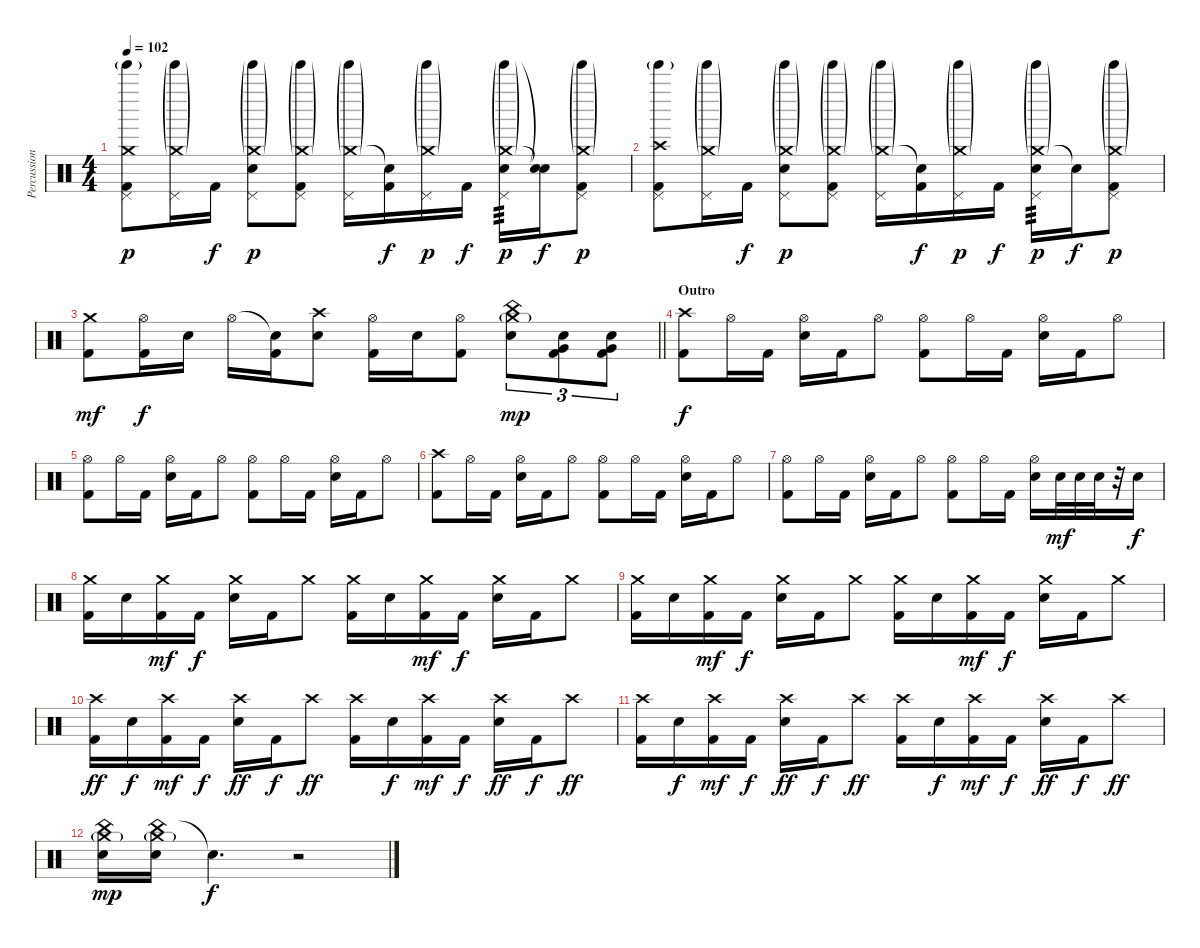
\track ("Percussions" "Percussion") {instrument percussion}
\staff {score}
\articulation defaults
\ts (4 4)
\tempo 102
\clef neutral
\ks c
("Crash medium (hit)" "Tinkle Bell (hit)"{g} "Pedal Hi-Hat (hit)" "Kick (hit) 2").8{dy p} ("Crash medium (hit)"{g} "Tinkle Bell (hit)"{g} "Pedal Hi-Hat (hit)").16 "Kick (hit) 2".16{dy f} ("Crash medium (hit)"{g} "Tinkle Bell (hit)"{g} "Pedal Hi-Hat (hit)" "Electric Snare (hit)").8{dy p} ("Crash medium (hit)"{g} "Tinkle Bell (hit)"{g} "Pedal Hi-Hat (hit)" "Kick (hit) 2").8 ("Crash medium (hit)"{g} "Tinkle Bell (hit)"{g} "Pedal Hi-Hat (hit)").16 ("Snare (hit)"{t} "Kick (hit) 2").16{dy f} ("Crash medium (hit)"{g} "Tinkle Bell (hit)"{g} "Pedal Hi-Hat (hit)").16{dy p} "Kick (hit) 2".16{dy f} ("Crash medium (hit)"{g} "Tinkle Bell (hit)"{g} "Pedal Hi-Hat (hit)" "Electric Snare (hit)").16{tp 3 dy p} ("Snare (hit)"{t} "Snare (hit)"{t}).16{dy f} ("Crash medium (hit)"{g} "Tinkle Bell (hit)"{g} "Pedal Hi-Hat (hit)" "Kick (hit) 2").8{dy p} |
("Crash high (hit)" "Tinkle Bell (hit)"{g} "Pedal Hi-Hat (hit)" "Kick (hit) 2").8 ("Crash medium (hit)"{g} "Tinkle Bell (hit)"{g} "Pedal Hi-Hat (hit)").16 "Kick (hit) 2".16{dy f} ("Crash medium (hit)"{g} "Tinkle Bell (hit)"{g} "Pedal Hi-Hat (hit)" "Electric Snare (hit)").8{dy p} ("Crash medium (hit)"{g} "Tinkle Bell (hit)"{g} "Pedal Hi-Hat (hit)" "Kick (hit) 2").8 ("Crash medium (hit)"{g} "Tinkle Bell (hit)"{g} "Pedal Hi-Hat (hit)").16 ("Snare (hit)"{t} "Kick (hit) 2").16{dy f} ("Crash medium (hit)"{g} "Tinkle Bell (hit)"{g} "Pedal Hi-Hat (hit)").16{dy p} "Kick (hit) 2".16{dy f} ("Crash medium (hit)"{g} "Tinkle Bell (hit)"{g} "Pedal Hi-Hat (hit)" "Electric Snare (hit)").16{tp 3 dy p} "Snare (hit)"{t}.16{dy f} ("Crash medium (hit)"{g} "Tinkle Bell (hit)"{g} "Pedal Hi-Hat (hit)" "Kick (hit) 2").8{dy p} |
\barLineRight lightlight
("Crash medium (hit)" "Kick (hit) 2").8{dy mf} ("Hi-Hat (open)" "Kick (hit) 2").16{dy f} "Electric Snare (hit)".16 "Hi-Hat (open)".16 ("Snare (hit)"{t} "Kick (hit) 2").16 ("Crash high (hit)" "Electric Snare (hit)").8 ("Hi-Hat (open)" "Kick (hit) 2").16 "Electric Snare (hit)".16 ("Hi-Hat (open)" "Kick (hit) 2").8 ("China (hit)" "Crash medium (hit)"{g} "Electric Snare (hit)").8{tu (3 2) dy mp} ("Very Low Tom (hit)" "Electric Snare (hit)" "Kick (hit) 2").8{tu (3 2)} ("Very Low Tom (hit)" "Electric Snare (hit)" "Kick (hit) 2").8{tu (3 2)} |
\section ("" "Outro")
("Crash high (hit)" "Kick (hit) 2").8{dy f} "Hi-Hat (open)".16 "Kick (hit) 2".16 ("Hi-Hat (open)" "Electric Snare (hit)").16 "Kick (hit) 2".16 "Hi-Hat (open)".8 ("Hi-Hat (open)" "Kick (hit) 2").8 "Hi-Hat (open)".16 "Kick (hit) 2".16 ("Hi-Hat (open)" "Electric Snare (hit)").16 "Kick (hit) 2".16 "Hi-Hat (open)".8 |
("Hi-Hat (open)" "Kick (hit) 2").8 "Hi-Hat (open)".16 "Kick (hit) 2".16 ("Hi-Hat (open)" "Electric Snare (hit)").16 "Kick (hit) 2".16 "Hi-Hat (open)".8 ("Hi-Hat (open)" "Kick (hit) 2").8 "Hi-Hat (open)".16 "Kick (hit) 2".16 ("Hi-Hat (open)" "Electric Snare (hit)").16 "Kick (hit) 2".16 "Hi-Hat (open)".8 |
("Crash high (hit)" "Kick (hit) 2").8 "Hi-Hat (open)".16 "Kick (hit) 2".16 ("Hi-Hat (open)" "Electric Snare (hit)").16 "Kick (hit) 2".16 "Hi-Hat (open)".8 ("Hi-Hat (open)" "Kick (hit) 2").8 "Hi-Hat (open)".16 "Kick (hit) 2".16 ("Hi-Hat (open)" "Electric Snare (hit)").16 "Kick (hit) 2".16 "Hi-Hat (open)".8 |
("Hi-Hat (open)" "Kick (hit) 2").8 "Hi-Hat (open)".16 "Kick (hit) 2".16 ("Hi-Hat (open)" "Electric Snare (hit)").16 "Kick (hit) 2".16 "Hi-Hat (open)".8 ("Hi-Hat (open)" "Kick (hit) 2").8 "Hi-Hat (open)".16 "Kick (hit) 2".16 ("Hi-Hat (open)" "Electric Snare (hit)").16 "Electric Snare (hit)".32{dy mf} "Electric Snare (hit)".32 "Electric Snare (hit)".32 r.32 "Electric Snare (hit)".16{dy f} |
("Crash medium (hit)" "Kick (hit) 2").16 "Electric Snare (hit)".16 ("Crash medium (hit)" "Kick (hit) 2").16{dy mf} "Kick (hit) 2".16{dy f} ("Crash medium (hit)" "Electric Snare (hit)").16 "Kick (hit) 2".16 "Crash medium (hit)".8 ("Crash medium (hit)" "Kick (hit) 2").16 "Electric Snare (hit)".16 ("Crash medium (hit)" "Kick (hit) 2").16{dy mf} "Kick (hit) 2".16{dy f} ("Crash medium (hit)" "Electric Snare (hit)").16 "Kick (hit) 2".16 "Crash medium (hit)".8 |
("Crash medium (hit)" "Kick (hit) 2").16 "Electric Snare (hit)".16 ("Crash medium (hit)" "Kick (hit) 2").16{dy mf} "Kick (hit) 2".16{dy f} ("Crash medium (hit)" "Electric Snare (hit)").16 "Kick (hit) 2".16 "Crash medium (hit)".8 ("Crash medium (hit)" "Kick (hit) 2").16 "Electric Snare (hit)".16 ("Crash medium (hit)" "Kick (hit) 2").16{dy mf} "Kick (hit) 2".16{dy f} ("Crash medium (hit)" "Electric Snare (hit)").16 "Kick (hit) 2".16 "Crash medium (hit)".8 |
("Crash high (hit)" "Kick (hit) 2").16{dy ff} "Electric Snare (hit)".16{dy f} ("Crash high (hit)" "Kick (hit) 2").16{dy mf} "Kick (hit) 2".16{dy f} ("Crash high (hit)" "Electric Snare (hit)").16{dy ff} "Kick (hit) 2".16{dy f} "Crash high (hit)".8{dy ff} ("Crash high (hit)" "Kick (hit) 2").16 "Electric Snare (hit)".16{dy f} ("Crash high (hit)" "Kick (hit) 2").16{dy mf} "Kick (hit) 2".16{dy f} ("Crash high (hit)" "Electric Snare (hit)").16{dy ff} "Kick (hit) 2".16{dy f} "Crash high (hit)".8{dy ff} |
("Crash high (hit)" "Kick (hit) 2").16 "Electric Snare (hit)".16{dy f} ("Crash high (hit)" "Kick (hit) 2").16{dy mf} "Kick (hit) 2".16{dy f} ("Crash high (hit)" "Electric Snare (hit)").16{dy ff} "Kick (hit) 2".16{dy f} "Crash high (hit)".8{dy ff} ("Crash high (hit)" "Kick (hit) 2").16 "Electric Snare (hit)".16{dy f} ("Crash high (hit)" "Kick (hit) 2").16{dy mf} "Kick (hit) 2".16{dy f} ("Crash high (hit)" "Electric Snare (hit)").16{dy ff} "Kick (hit) 2".16{dy f} "Crash high (hit)".8{dy ff} |
("China (hit)" "Crash medium (hit)"{g} "Electric Snare (hit)").16{dy mp} ("China (hit)" "Crash medium (hit)"{g} "Electric Snare (hit)").16 "Snare (hit)"{t}.4{d dy f} r.2
